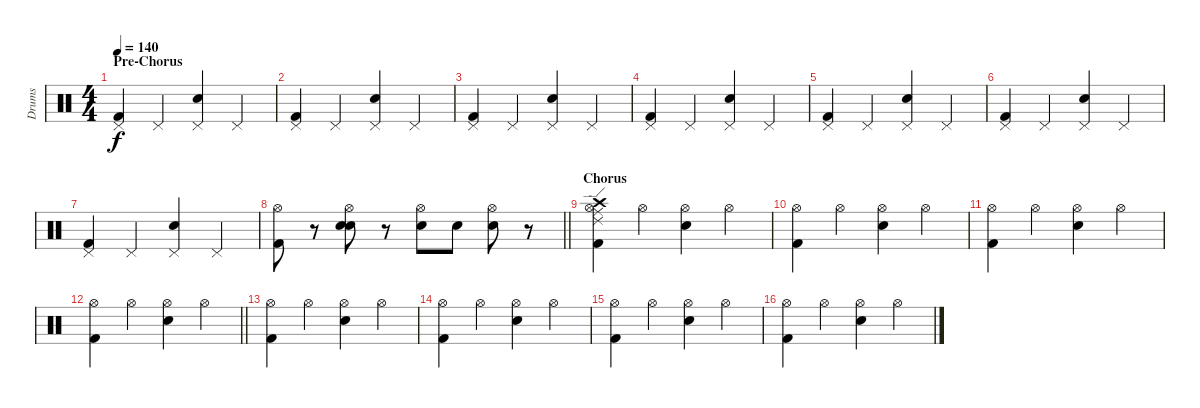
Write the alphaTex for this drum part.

\track ("Drums" "Drums") {instrument percussion}
\staff {score}
\articulation defaults
\ts (4 4)
\section ("" "Pre-Chorus")
\tempo 140
\clef neutral
\ks c
("Pedal Hi-Hat (hit)" "Kick (hit) 2").4{dy f} "Pedal Hi-Hat (hit)".4 ("Pedal Hi-Hat (hit)" "Snare (hit) 2").4 "Pedal Hi-Hat (hit)".4 |
("Pedal Hi-Hat (hit)" "Kick (hit) 2").4 "Pedal Hi-Hat (hit)".4 ("Pedal Hi-Hat (hit)" "Snare (hit) 2").4 "Pedal Hi-Hat (hit)".4 |
("Pedal Hi-Hat (hit)" "Kick (hit) 2").4 "Pedal Hi-Hat (hit)".4 ("Pedal Hi-Hat (hit)" "Snare (hit) 2").4 "Pedal Hi-Hat (hit)".4 |
("Pedal Hi-Hat (hit)" "Kick (hit) 2").4 "Pedal Hi-Hat (hit)".4 ("Pedal Hi-Hat (hit)" "Snare (hit) 2").4 "Pedal Hi-Hat (hit)".4 |
("Pedal Hi-Hat (hit)" "Kick (hit) 2").4 "Pedal Hi-Hat (hit)".4 ("Pedal Hi-Hat (hit)" "Snare (hit) 2").4 "Pedal Hi-Hat (hit)".4 |
("Pedal Hi-Hat (hit)" "Kick (hit) 2").4 "Pedal Hi-Hat (hit)".4 ("Pedal Hi-Hat (hit)" "Snare (hit) 2").4 "Pedal Hi-Hat (hit)".4 |
("Pedal Hi-Hat (hit)" "Kick (hit) 2").4 "Pedal Hi-Hat (hit)".4 ("Pedal Hi-Hat (hit)" "Snare (hit) 2").4 "Pedal Hi-Hat (hit)".4 |
\barLineRight lightlight
("Hi-Hat (open)" "Kick (hit) 2").8 r.8 ("Hi-Hat (open)" "Snare (hit) 2" "Snare (hit) 2").8 r.8 ("Hi-Hat (open)" "Snare (hit) 2").8 "Snare (hit) 2".8 ("Hi-Hat (open)" "Snare (hit) 2").8 r.8 |
\section ("" "Chorus")
("Hi-Hat (open)" "Kick (hit) 2" "Ride (middle)" "Ride (edge) 2" "Crash high (hit)").4 "Hi-Hat (open)".4 ("Hi-Hat (open)" "Snare (hit) 2").4 "Hi-Hat (open)".4 |
("Hi-Hat (open)" "Kick (hit) 2").4 "Hi-Hat (open)".4 ("Hi-Hat (open)" "Snare (hit) 2").4 "Hi-Hat (open)".4 |
("Hi-Hat (open)" "Kick (hit) 2").4 "Hi-Hat (open)".4 ("Hi-Hat (open)" "Snare (hit) 2").4 "Hi-Hat (open)".4 |
\barLineRight lightlight
("Hi-Hat (open)" "Kick (hit) 2").4 "Hi-Hat (open)".4 ("Hi-Hat (open)" "Snare (hit) 2").4 "Hi-Hat (open)".4 |
\section ("" "")
("Hi-Hat (open)" "Kick (hit) 2").4 "Hi-Hat (open)".4 ("Hi-Hat (open)" "Snare (hit) 2").4 "Hi-Hat (open)".4 |
("Hi-Hat (open)" "Kick (hit) 2").4 "Hi-Hat (open)".4 ("Hi-Hat (open)" "Snare (hit) 2").4 "Hi-Hat (open)".4 |
("Hi-Hat (open)" "Kick (hit) 2").4 "Hi-Hat (open)".4 ("Hi-Hat (open)" "Snare (hit) 2").4 "Hi-Hat (open)".4 |
("Hi-Hat (open)" "Kick (hit) 2").4 "Hi-Hat (open)".4 ("Hi-Hat (open)" "Snare (hit) 2").4 "Hi-Hat (open)".4
